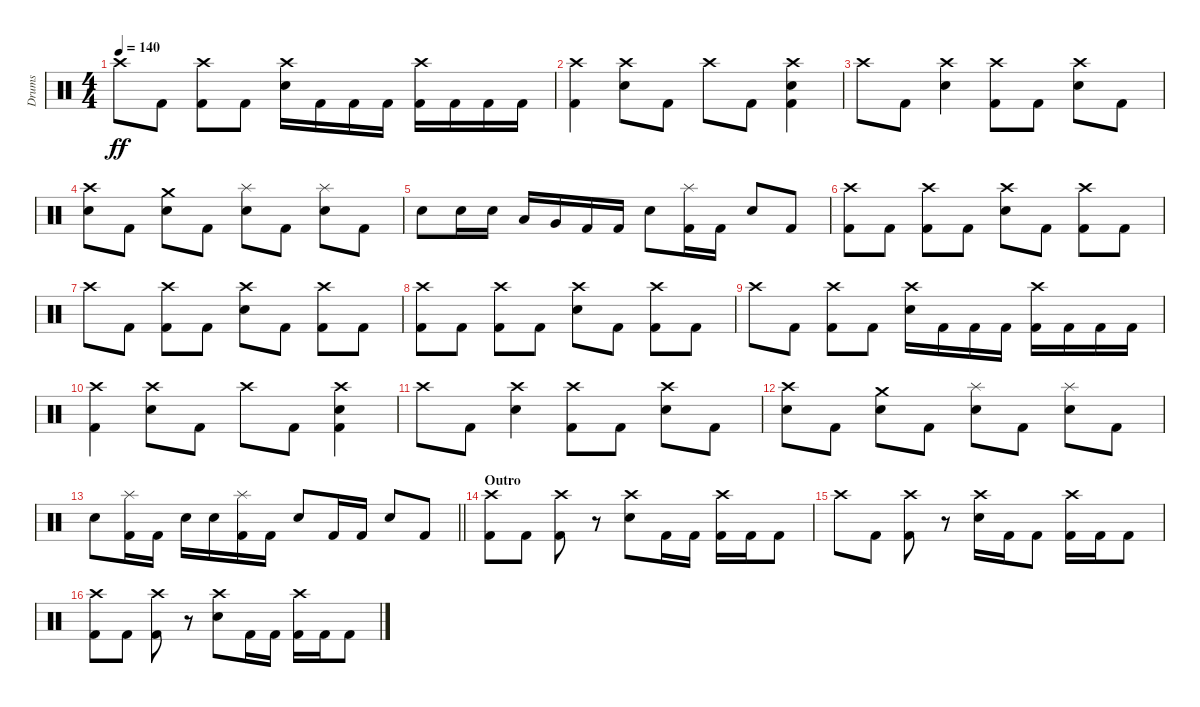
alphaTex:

\track ("Drums" "Drums") {instrument percussion}
\staff {score}
\articulation defaults
\ts (4 4)
\tempo 140
\clef neutral
\ks c "Crash high (hit)".8{dy ff} "Kick (hit) 2".8
("Crash high (hit)" "Kick (hit) 2").8 "Kick (hit) 2".8 ("Crash high (hit)" "Electric Snare (hit)").16 "Kick (hit) 2".16 "Kick (hit) 2".16 "Kick (hit) 2".16 ("Crash high (hit)" "Kick (hit) 2").16 "Kick (hit) 2".16 "Kick (hit) 2".16 "Kick (hit) 2".16 |
("Crash high (hit)" "Kick (hit) 2").4 ("Crash high (hit)" "Electric Snare (hit)").8 "Kick (hit) 2".8 "Crash high (hit)".8 "Kick (hit) 2".8 ("Crash high (hit)" "Electric Snare (hit)" "Kick (hit) 2").4 |
"Crash high (hit)".8 "Kick (hit) 2".8 ("Crash high (hit)" "Electric Snare (hit)").4 ("Crash high (hit)" "Kick (hit) 2").8 "Kick (hit) 2".8 ("Crash high (hit)" "Electric Snare (hit)").8 "Kick (hit) 2".8 |
("Crash high (hit)" "Electric Snare (hit)").8 "Kick (hit) 2".8 ("Crash medium (hit)" "Electric Snare (hit)").8 "Kick (hit) 2".8 ("Splash (hit)" "Electric Snare (hit)").8 "Kick (hit) 2".8 ("Splash (hit)" "Electric Snare (hit)").8 "Kick (hit) 2".8 |
"Electric Snare (hit)".8 "Electric Snare (hit)".16 "Electric Snare (hit)".16 "Low Tom (hit)".16 "Very Low Tom (hit)".16 "Kick (hit) 2".16 "Kick (hit) 2".16 "Electric Snare (hit)".8 ("Splash (hit)" "Kick (hit) 2").16 "Kick (hit) 2".16 "Electric Snare (hit)".8 "Kick (hit) 2".8 |
("Crash high (hit)" "Kick (hit) 2").8 "Kick (hit) 2".8 ("Crash high (hit)" "Kick (hit) 2").8 "Kick (hit) 2".8 ("Crash high (hit)" "Electric Snare (hit)").8 "Kick (hit) 2".8 ("Crash high (hit)" "Kick (hit) 2").8 "Kick (hit) 2".8 |
"Crash high (hit)".8 "Kick (hit) 2".8 ("Crash high (hit)" "Kick (hit) 2").8 "Kick (hit) 2".8 ("Crash high (hit)" "Electric Snare (hit)").8 "Kick (hit) 2".8 ("Crash high (hit)" "Kick (hit) 2").8 "Kick (hit) 2".8 |
("Crash high (hit)" "Kick (hit) 2").8 "Kick (hit) 2".8 ("Crash high (hit)" "Kick (hit) 2").8 "Kick (hit) 2".8 ("Crash high (hit)" "Electric Snare (hit)").8 "Kick (hit) 2".8 ("Crash high (hit)" "Kick (hit) 2").8 "Kick (hit) 2".8 |
"Crash high (hit)".8 "Kick (hit) 2".8 ("Crash high (hit)" "Kick (hit) 2").8 "Kick (hit) 2".8 ("Crash high (hit)" "Electric Snare (hit)").16 "Kick (hit) 2".16 "Kick (hit) 2".16 "Kick (hit) 2".16 ("Crash high (hit)" "Kick (hit) 2").16 "Kick (hit) 2".16 "Kick (hit) 2".16 "Kick (hit) 2".16 |
("Crash high (hit)" "Kick (hit) 2").4 ("Crash high (hit)" "Electric Snare (hit)").8 "Kick (hit) 2".8 "Crash high (hit)".8 "Kick (hit) 2".8 ("Crash high (hit)" "Electric Snare (hit)" "Kick (hit) 2").4 |
"Crash high (hit)".8 "Kick (hit) 2".8 ("Crash high (hit)" "Electric Snare (hit)").4 ("Crash high (hit)" "Kick (hit) 2").8 "Kick (hit) 2".8 ("Crash high (hit)" "Electric Snare (hit)").8 "Kick (hit) 2".8 |
("Crash high (hit)" "Electric Snare (hit)").8 "Kick (hit) 2".8 ("Crash medium (hit)" "Electric Snare (hit)").8 "Kick (hit) 2".8 ("Splash (hit)" "Electric Snare (hit)").8 "Kick (hit) 2".8 ("Splash (hit)" "Electric Snare (hit)").8 "Kick (hit) 2".8 |
\barLineRight lightlight "Electric Snare (hit)".8
("Splash (hit)" "Kick (hit) 2").16 "Kick (hit) 2".16 "Electric Snare (hit)".16 "Electric Snare (hit)".16 ("Splash (hit)" "Kick (hit) 2").16 "Kick (hit) 2".16 "Electric Snare (hit)".8 "Kick (hit) 2".16 "Kick (hit) 2".16 "Electric Snare (hit)".8 "Kick (hit) 2".8 |
\section ("" "Outro")
("Crash high (hit)" "Kick (hit) 2").8 "Kick (hit) 2".8 ("Crash high (hit)" "Kick (hit) 2").8 r.8 ("Crash high (hit)" "Electric Snare (hit)").8 "Kick (hit) 2".16 "Kick (hit) 2".16 ("Crash high (hit)" "Kick (hit) 2").16 "Kick (hit) 2".16 "Kick (hit) 2".8 |
"Crash high (hit)".8 "Kick (hit) 2".8 ("Crash high (hit)" "Kick (hit) 2").8 r.8 ("Crash high (hit)" "Electric Snare (hit)").16 "Kick (hit) 2".16 "Kick (hit) 2".8 ("Crash high (hit)" "Kick (hit) 2").16 "Kick (hit) 2".16 "Kick (hit) 2".8 |
("Crash high (hit)" "Kick (hit) 2").8 "Kick (hit) 2".8 ("Crash high (hit)" "Kick (hit) 2").8 r.8 ("Crash high (hit)" "Electric Snare (hit)").8 "Kick (hit) 2".16 "Kick (hit) 2".16 ("Crash high (hit)" "Kick (hit) 2").16 "Kick (hit) 2".16 "Kick (hit) 2".8
